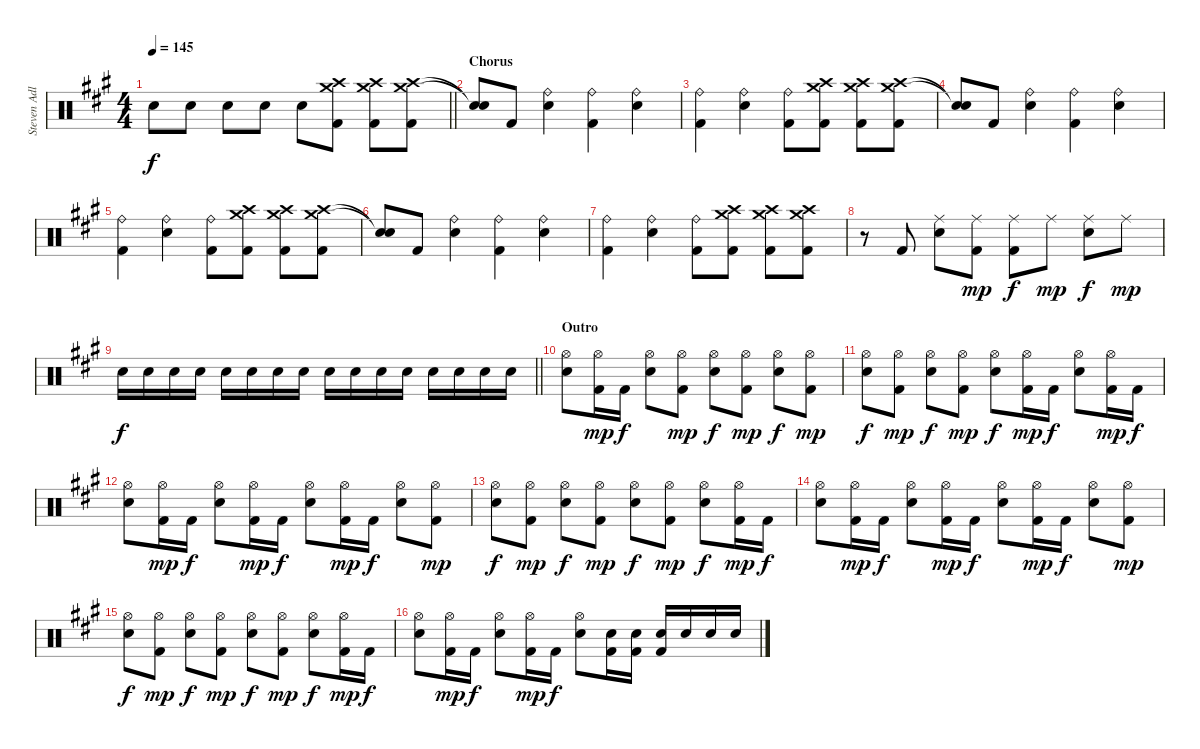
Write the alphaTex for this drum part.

\track ("Steven Adler - Drums" "Steven Adl") {instrument percussion}
\staff {score}
\articulation defaults
\ts (4 4)
\tempo 145
\clef neutral
\barLineRight lightlight
\ks a "Snare (hit) 2".8{dy f} "Snare (hit) 2".8 "Snare (hit) 2".8 "Snare (hit) 2".8 "Snare (hit) 2".8
("Crash medium (hit)" "Crash high (hit)" "Kick (hit) 2").8 ("Crash medium (hit)" "Crash high (hit)" "Kick (hit) 2").8 ("Crash medium (hit)" "Crash high (hit)" "Kick (hit) 2").8 |
\section ("" "Chorus")
("Snare (hit)"{t} "Snare (hit)"{t}).8 "Kick (hit) 2".8 ("Ride (bell)" "Snare (hit) 2").4 ("Ride (bell)" "Kick (hit) 2").4 ("Ride (bell)" "Snare (hit) 2").4 |
("Ride (bell)" "Kick (hit) 2").4 ("Ride (bell)" "Snare (hit) 2").4 ("Ride (bell)" "Kick (hit) 2").8 ("Crash medium (hit)" "Crash high (hit)" "Kick (hit) 2").8 ("Crash medium (hit)" "Crash high (hit)" "Kick (hit) 2").8 ("Crash medium (hit)" "Crash high (hit)" "Kick (hit) 2").8 |
("Snare (hit)"{t} "Snare (hit)"{t}).8 "Kick (hit) 2".8 ("Ride (bell)" "Snare (hit) 2").4 ("Ride (bell)" "Kick (hit) 2").4 ("Ride (bell)" "Snare (hit) 2").4 |
("Ride (bell)" "Kick (hit) 2").4 ("Ride (bell)" "Snare (hit) 2").4 ("Ride (bell)" "Kick (hit) 2").8 ("Crash medium (hit)" "Crash high (hit)" "Kick (hit) 2").8 ("Crash medium (hit)" "Crash high (hit)" "Kick (hit) 2").8 ("Crash medium (hit)" "Crash high (hit)" "Kick (hit) 2").8 |
("Snare (hit)"{t} "Snare (hit)"{t}).8 "Kick (hit) 2".8 ("Ride (bell)" "Snare (hit) 2").4 ("Ride (bell)" "Kick (hit) 2").4 ("Ride (bell)" "Snare (hit) 2").4 |
("Ride (bell)" "Kick (hit) 2").4 ("Ride (bell)" "Snare (hit) 2").4 ("Ride (bell)" "Kick (hit) 2").8 ("Crash medium (hit)" "Crash high (hit)" "Kick (hit) 2").8 ("Crash medium (hit)" "Crash high (hit)" "Kick (hit) 2").8 ("Crash medium (hit)" "Crash high (hit)" "Kick (hit) 2").8 |
r.8 "Kick (hit) 2".8 ("Ride (middle)" "Snare (hit) 2").8 ("Ride (middle)" "Kick (hit) 2").8{dy mp} ("Ride (middle)" "Kick (hit) 2").8{dy f} "Ride (middle)".8{dy mp} ("Ride (middle)" "Snare (hit) 2").8{dy f} "Ride (middle)".8{dy mp} |
\barLineRight lightlight "Snare (hit) 2".16{dy f} "Snare (hit) 2".16 "Snare (hit) 2".16 "Snare (hit) 2".16 "Snare (hit) 2".16 "Snare (hit) 2".16 "Snare (hit) 2".16 "Snare (hit) 2".16 "Snare (hit) 2".16 "Snare (hit) 2".16 "Snare (hit) 2".16 "Snare (hit) 2".16 "Snare (hit) 2".16 "Snare (hit) 2".16 "Snare (hit) 2".16 "Snare (hit) 2".16
|
\section ("" "Outro")
("Hi-Hat (open)" "Snare (hit) 2").8 ("Hi-Hat (open)" "Kick (hit) 2").16{dy mp} "Kick (hit) 2".16{dy f} ("Hi-Hat (open)" "Snare (hit) 2").8 ("Hi-Hat (open)" "Kick (hit) 2").8{dy mp} ("Hi-Hat (open)" "Snare (hit) 2").8{dy f} ("Hi-Hat (open)" "Kick (hit) 2").8{dy mp} ("Hi-Hat (open)" "Snare (hit) 2").8{dy f} ("Hi-Hat (open)" "Kick (hit) 2").8{dy mp} |
("Hi-Hat (open)" "Snare (hit) 2").8{dy f} ("Hi-Hat (open)" "Kick (hit) 2").8{dy mp} ("Hi-Hat (open)" "Snare (hit) 2").8{dy f} ("Hi-Hat (open)" "Kick (hit) 2").8{dy mp} ("Hi-Hat (open)" "Snare (hit) 2").8{dy f} ("Hi-Hat (open)" "Kick (hit) 2").16{dy mp} "Kick (hit) 2".16{dy f} ("Hi-Hat (open)" "Snare (hit) 2").8 ("Hi-Hat (open)" "Kick (hit) 2").16{dy mp} "Kick (hit) 2".16{dy f} |
("Hi-Hat (open)" "Snare (hit) 2").8 ("Hi-Hat (open)" "Kick (hit) 2").16{dy mp} "Kick (hit) 2".16{dy f} ("Hi-Hat (open)" "Snare (hit) 2").8 ("Hi-Hat (open)" "Kick (hit) 2").16{dy mp} "Kick (hit) 2".16{dy f} ("Hi-Hat (open)" "Snare (hit) 2").8 ("Hi-Hat (open)" "Kick (hit) 2").16{dy mp} "Kick (hit) 2".16{dy f} ("Hi-Hat (open)" "Snare (hit) 2").8 ("Hi-Hat (open)" "Kick (hit) 2").8{dy mp} |
("Hi-Hat (open)" "Snare (hit) 2").8{dy f} ("Hi-Hat (open)" "Kick (hit) 2").8{dy mp} ("Hi-Hat (open)" "Snare (hit) 2").8{dy f} ("Hi-Hat (open)" "Kick (hit) 2").8{dy mp} ("Hi-Hat (open)" "Snare (hit) 2").8{dy f} ("Hi-Hat (open)" "Kick (hit) 2").8{dy mp} ("Hi-Hat (open)" "Snare (hit) 2").8{dy f} ("Hi-Hat (open)" "Kick (hit) 2").16{dy mp} "Kick (hit) 2".16{dy f} |
("Hi-Hat (open)" "Snare (hit) 2").8 ("Hi-Hat (open)" "Kick (hit) 2").16{dy mp} "Kick (hit) 2".16{dy f} ("Hi-Hat (open)" "Snare (hit) 2").8 ("Hi-Hat (open)" "Kick (hit) 2").16{dy mp} "Kick (hit) 2".16{dy f} ("Hi-Hat (open)" "Snare (hit) 2").8 ("Hi-Hat (open)" "Kick (hit) 2").16{dy mp} "Kick (hit) 2".16{dy f} ("Hi-Hat (open)" "Snare (hit) 2").8 ("Hi-Hat (open)" "Kick (hit) 2").8{dy mp} |
("Hi-Hat (open)" "Snare (hit) 2").8{dy f} ("Hi-Hat (open)" "Kick (hit) 2").8{dy mp} ("Hi-Hat (open)" "Snare (hit) 2").8{dy f} ("Hi-Hat (open)" "Kick (hit) 2").8{dy mp} ("Hi-Hat (open)" "Snare (hit) 2").8{dy f} ("Hi-Hat (open)" "Kick (hit) 2").8{dy mp} ("Hi-Hat (open)" "Snare (hit) 2").8{dy f} ("Hi-Hat (open)" "Kick (hit) 2").16{dy mp} "Kick (hit) 2".16{dy f} |
("Hi-Hat (open)" "Snare (hit) 2").8 ("Hi-Hat (open)" "Kick (hit) 2").16{dy mp} "Kick (hit) 2".16{dy f} ("Hi-Hat (open)" "Snare (hit) 2").8 ("Hi-Hat (open)" "Kick (hit) 2").16{dy mp} "Kick (hit) 2".16{dy f} ("Hi-Hat (open)" "Snare (hit) 2").8 ("Snare (hit) 2" "Kick (hit) 2").16 ("Snare (hit) 2" "Kick (hit) 2").16 ("Snare (hit) 2" "Kick (hit) 2").16 "Snare (hit) 2".16 "Snare (hit) 2".16 "Snare (hit) 2".16
